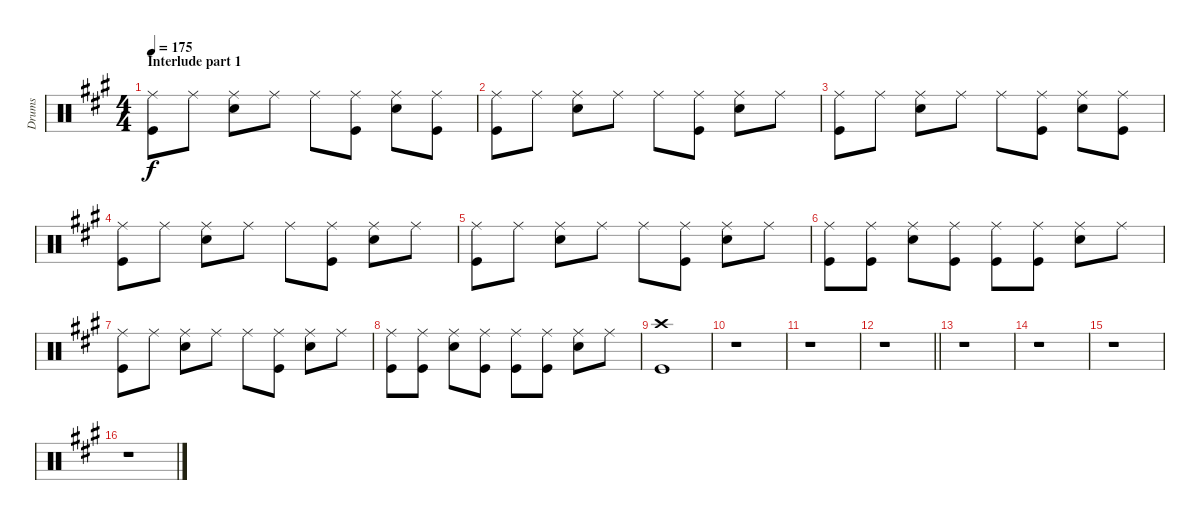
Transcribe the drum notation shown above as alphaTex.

\track ("Drums" "Drums") {instrument percussion}
\staff {score}
\articulation defaults
\ts (4 4)
\section ("" "Interlude part 1")
\tempo 175
\clef neutral
\ks f#minor
("Ride (middle)" "Kick (hit)").8{dy f} "Ride (middle)".8 ("Ride (middle)" "Snare (hit) 2").8 "Ride (middle)".8 "Ride (middle)".8 ("Ride (middle)" "Kick (hit)").8 ("Ride (middle)" "Snare (hit) 2").8 ("Ride (middle)" "Kick (hit)").8 |
("Ride (middle)" "Kick (hit)").8 "Ride (middle)".8 ("Ride (middle)" "Snare (hit) 2").8 "Ride (middle)".8 "Ride (middle)".8 ("Ride (middle)" "Kick (hit)").8 ("Ride (middle)" "Snare (hit) 2").8 "Ride (middle)".8 |
("Ride (middle)" "Kick (hit)").8 "Ride (middle)".8 ("Ride (middle)" "Snare (hit) 2").8 "Ride (middle)".8 "Ride (middle)".8 ("Ride (middle)" "Kick (hit)").8 ("Ride (middle)" "Snare (hit) 2").8 ("Ride (middle)" "Kick (hit)").8 |
("Ride (middle)" "Kick (hit)").8 "Ride (middle)".8 ("Ride (middle)" "Snare (hit) 2").8 "Ride (middle)".8 "Ride (middle)".8 ("Ride (middle)" "Kick (hit)").8 ("Ride (middle)" "Snare (hit) 2").8 "Ride (middle)".8 |
("Ride (middle)" "Kick (hit)").8 "Ride (middle)".8 ("Ride (middle)" "Snare (hit) 2").8 "Ride (middle)".8 "Ride (middle)".8 ("Ride (middle)" "Kick (hit)").8 ("Ride (middle)" "Snare (hit) 2").8 "Ride (middle)".8 |
("Ride (middle)" "Kick (hit)").8 ("Ride (middle)" "Kick (hit)").8 ("Ride (middle)" "Snare (hit) 2").8 ("Ride (middle)" "Kick (hit)").8 ("Ride (middle)" "Kick (hit)").8 ("Ride (middle)" "Kick (hit)").8 ("Ride (middle)" "Snare (hit) 2").8 "Ride (middle)".8 |
("Ride (middle)" "Kick (hit)").8 "Ride (middle)".8 ("Ride (middle)" "Snare (hit) 2").8 "Ride (middle)".8 "Ride (middle)".8 ("Ride (middle)" "Kick (hit)").8 ("Ride (middle)" "Snare (hit) 2").8 "Ride (middle)".8 |
("Ride (middle)" "Kick (hit)").8 ("Ride (middle)" "Kick (hit)").8 ("Ride (middle)" "Snare (hit) 2").8 ("Ride (middle)" "Kick (hit)").8 ("Ride (middle)" "Kick (hit)").8 ("Ride (middle)" "Kick (hit)").8 ("Ride (middle)" "Snare (hit) 2").8 "Ride (middle)".8 |
("Crash high (hit)" "Kick (hit)").1 |
r.1 |
r.1 |
\barLineRight lightlight
r.1 |
r.1 |
r.1 |
r.1 |
r.1
